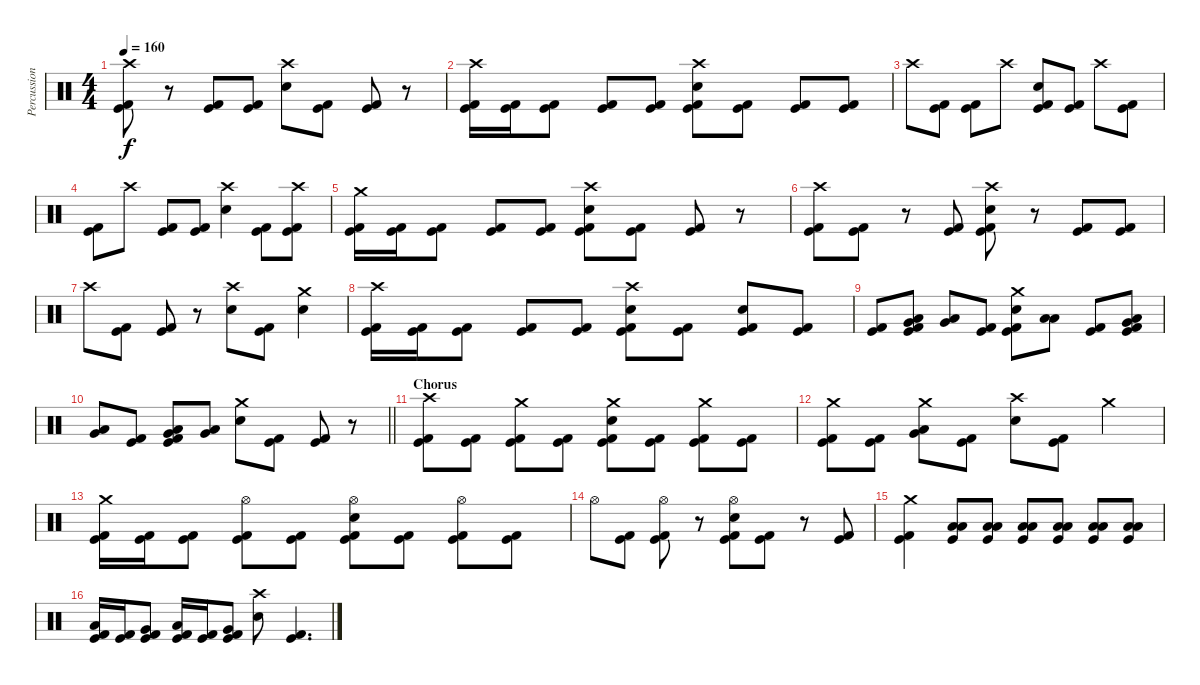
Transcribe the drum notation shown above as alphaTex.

\track ("Percussion" "Percussion") {instrument percussion}
\staff {score}
\articulation defaults
\ts (4 4)
\tempo 160
\clef neutral
\ks c
("Crash high (hit)" "Kick (hit)" "Kick (hit) 2").8{dy f} r.8 ("Kick (hit)" "Kick (hit) 2").8 ("Kick (hit)" "Kick (hit) 2").8 ("Crash high (hit)" "Electric Snare (hit)").8 ("Kick (hit)" "Kick (hit) 2").8 ("Kick (hit)" "Kick (hit) 2").8 r.8 |
("Crash high (hit)" "Kick (hit)" "Kick (hit) 2").16 ("Kick (hit)" "Kick (hit) 2").16 ("Kick (hit)" "Kick (hit) 2").8 ("Kick (hit)" "Kick (hit) 2").8 ("Kick (hit)" "Kick (hit) 2").8 ("Crash high (hit)" "Electric Snare (hit)" "Kick (hit)" "Kick (hit) 2").8 ("Kick (hit)" "Kick (hit) 2").8 ("Kick (hit)" "Kick (hit) 2").8 ("Kick (hit)" "Kick (hit) 2").8 |
"Crash high (hit)".8 ("Kick (hit)" "Kick (hit) 2").8 ("Kick (hit)" "Kick (hit) 2").8 "Crash high (hit)".8 ("Electric Snare (hit)" "Kick (hit)" "Kick (hit) 2").8 ("Kick (hit)" "Kick (hit) 2").8 "Crash high (hit)".8 ("Kick (hit)" "Kick (hit) 2").8 |
("Kick (hit)" "Kick (hit) 2").8 "Crash high (hit)".8 ("Kick (hit)" "Kick (hit) 2").8 ("Kick (hit)" "Kick (hit) 2").8 ("Crash high (hit)" "Electric Snare (hit)").4 ("Kick (hit)" "Kick (hit) 2").8 ("Crash high (hit)" "Kick (hit)" "Kick (hit) 2").8 |
("Crash medium (hit)" "Kick (hit)" "Kick (hit) 2").16 ("Kick (hit)" "Kick (hit) 2").16 ("Kick (hit)" "Kick (hit) 2").8 ("Kick (hit)" "Kick (hit) 2").8 ("Kick (hit)" "Kick (hit) 2").8 ("Crash high (hit)" "Electric Snare (hit)" "Kick (hit)" "Kick (hit) 2").8 ("Kick (hit)" "Kick (hit) 2").8 ("Kick (hit)" "Kick (hit) 2").8 r.8 |
("Crash high (hit)" "Kick (hit)" "Kick (hit) 2").8 ("Kick (hit)" "Kick (hit) 2").8 r.8 ("Kick (hit)" "Kick (hit) 2").8 ("Crash high (hit)" "Electric Snare (hit)" "Kick (hit)" "Kick (hit) 2").8 r.8 ("Kick (hit)" "Kick (hit) 2").8 ("Kick (hit)" "Kick (hit) 2").8 |
"Crash high (hit)".8 ("Kick (hit)" "Kick (hit) 2").8 ("Kick (hit)" "Kick (hit) 2").8 r.8 ("Crash high (hit)" "Electric Snare (hit)").8 ("Kick (hit)" "Kick (hit) 2").8 ("Crash medium (hit)" "Electric Snare (hit)").4 |
("Crash high (hit)" "Kick (hit)" "Kick (hit) 2").16 ("Kick (hit)" "Kick (hit) 2").16 ("Kick (hit)" "Kick (hit) 2").8 ("Kick (hit)" "Kick (hit) 2").8 ("Kick (hit)" "Kick (hit) 2").8 ("Crash high (hit)" "Electric Snare (hit)" "Kick (hit)" "Kick (hit) 2").8 ("Kick (hit)" "Kick (hit) 2").8 ("Electric Snare (hit)" "Kick (hit)" "Kick (hit) 2").8 ("Kick (hit)" "Kick (hit) 2").8 |
("Kick (hit)" "Kick (hit) 2").8 ("Very Low Tom (hit)" "Low Floor Tom (hit)" "Kick (hit)" "Kick (hit) 2").8 ("Very Low Tom (hit)" "Low Floor Tom (hit)").8 ("Kick (hit)" "Kick (hit) 2").8 ("Crash medium (hit)" "Electric Snare (hit)" "Kick (hit)" "Kick (hit) 2").8 ("Low Tom (hit)" "Low Floor Tom (hit)").8 ("Kick (hit)" "Kick (hit) 2").8 ("Very Low Tom (hit)" "Low Floor Tom (hit)" "Kick (hit)" "Kick (hit) 2").8 |
\barLineRight lightlight
("Very Low Tom (hit)" "Low Floor Tom (hit)").8 ("Kick (hit)" "Kick (hit) 2").8 ("Low Tom (hit)" "Very Low Tom (hit)" "Kick (hit)" "Kick (hit) 2").8 ("Low Tom (hit)" "Very Low Tom (hit)").8 ("Crash medium (hit)" "Electric Snare (hit)").8 ("Kick (hit)" "Kick (hit) 2").8 ("Kick (hit)" "Kick (hit) 2").8 r.8 |
\section ("" "Chorus")
("Crash high (hit)" "Kick (hit)" "Kick (hit) 2").8 ("Kick (hit)" "Kick (hit) 2").8 ("Crash medium (hit)" "Kick (hit)" "Kick (hit) 2").8 ("Kick (hit)" "Kick (hit) 2").8 ("Crash medium (hit)" "Electric Snare (hit)" "Kick (hit)" "Kick (hit) 2").8 ("Kick (hit)" "Kick (hit) 2").8 ("Crash medium (hit)" "Kick (hit)" "Kick (hit) 2").8 ("Kick (hit)" "Kick (hit) 2").8 |
("Crash medium (hit)" "Kick (hit)" "Kick (hit) 2").8 ("Kick (hit)" "Kick (hit) 2").8 ("Crash medium (hit)" "Low Tom (hit)" "Very Low Tom (hit)").8 ("Kick (hit)" "Kick (hit) 2").8 ("Crash high (hit)" "Electric Snare (hit)").8 ("Kick (hit)" "Kick (hit) 2").8 "Crash medium (hit)".4 |
("Crash medium (hit)" "Kick (hit)" "Kick (hit) 2").16 ("Kick (hit)" "Kick (hit) 2").16 ("Kick (hit)" "Kick (hit) 2").8 ("Hi-Hat (open)" "Kick (hit)" "Kick (hit) 2").8 ("Kick (hit)" "Kick (hit) 2").8 ("Hi-Hat (open)" "Electric Snare (hit)" "Kick (hit)" "Kick (hit) 2").8 ("Kick (hit)" "Kick (hit) 2").8 ("Hi-Hat (open)" "Kick (hit)" "Kick (hit) 2").8 ("Kick (hit)" "Kick (hit) 2").8 |
"Hi-Hat (open)".8 ("Kick (hit)" "Kick (hit) 2").8 ("Hi-Hat (open)" "Kick (hit)" "Kick (hit) 2").8 r.8 ("Hi-Hat (open)" "Electric Snare (hit)" "Kick (hit)" "Kick (hit) 2").8 ("Kick (hit)" "Kick (hit) 2").8 r.8 ("Kick (hit)" "Kick (hit) 2").8 |
("Crash medium (hit)" "Kick (hit)" "Kick (hit) 2").4 ("Low Tom (hit)" "Low Floor Tom (hit)" "Kick (hit)").8{volume 7} ("Low Tom (hit)" "Low Floor Tom (hit)" "Kick (hit)").8{volume 13} ("Low Tom (hit)" "Low Floor Tom (hit)" "Kick (hit)").8 ("Low Tom (hit)" "Low Floor Tom (hit)" "Kick (hit)").8 ("Low Tom (hit)" "Low Floor Tom (hit)" "Kick (hit)").8 ("Low Tom (hit)" "Low Floor Tom (hit)" "Kick (hit)").8 |
("Low Tom (hit)" "Kick (hit)" "Kick (hit) 2").16 ("Kick (hit)" "Kick (hit) 2").16 ("Very Low Tom (hit)" "Kick (hit)" "Kick (hit) 2").8 ("Low Tom (hit)" "Kick (hit)" "Kick (hit) 2").16 ("Kick (hit)" "Kick (hit) 2").16 ("Very Low Tom (hit)" "Kick (hit)" "Kick (hit) 2").8 ("Crash high (hit)" "Electric Snare (hit)").8 ("Kick (hit)" "Kick (hit) 2").4{d}
